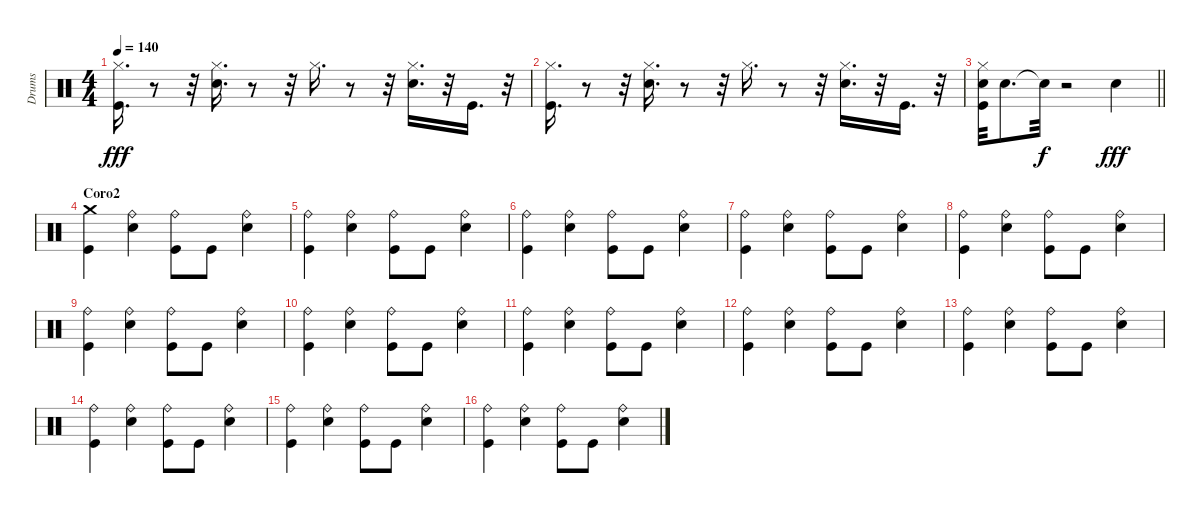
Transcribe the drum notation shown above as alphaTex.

\track ("Drums" "Drums") {instrument percussion}
\staff {score}
\articulation defaults
\ts (4 4)
\tempo 140
\clef neutral
\ks c
("Hi-Hat (closed)" "Kick (hit)").16{d dy fff} r.8 r.32 ("Hi-Hat (closed)" "Electric Snare (hit)").16{d} r.8 r.32 "Hi-Hat (closed)".16{d} r.8 r.32 ("Hi-Hat (closed)" "Electric Snare (hit)").16{d} r.32 "Kick (hit)".16{d} r.32 |
("Hi-Hat (closed)" "Kick (hit)").16{d} r.8 r.32 ("Hi-Hat (closed)" "Electric Snare (hit)").16{d} r.8 r.32 "Hi-Hat (closed)".16{d} r.8 r.32 ("Hi-Hat (closed)" "Electric Snare (hit)").16{d} r.32 "Kick (hit)".16{d} r.32 |
\barLineRight lightlight
("Hi-Hat (closed)" "Electric Snare (hit)" "Kick (hit)").32 "Electric Snare (hit)".8{d} "Snare (hit)"{t}.32{dy f} r.2 "Electric Snare (hit)".4{dy fff} |
\section ("" "Coro2")
("Crash medium (hit)" "Kick (hit)").4 ("Ride (bell)" "Electric Snare (hit)").4 ("Ride (bell)" "Kick (hit)").8 "Kick (hit)".8 ("Ride (bell)" "Electric Snare (hit)").4 |
("Ride (bell)" "Kick (hit)").4 ("Ride (bell)" "Electric Snare (hit)").4 ("Ride (bell)" "Kick (hit)").8 "Kick (hit)".8 ("Ride (bell)" "Electric Snare (hit)").4 |
("Ride (bell)" "Kick (hit)").4 ("Ride (bell)" "Electric Snare (hit)").4 ("Ride (bell)" "Kick (hit)").8 "Kick (hit)".8 ("Ride (bell)" "Electric Snare (hit)").4 |
("Ride (bell)" "Kick (hit)").4 ("Ride (bell)" "Electric Snare (hit)").4 ("Ride (bell)" "Kick (hit)").8 "Kick (hit)".8 ("Ride (bell)" "Electric Snare (hit)").4 |
("Ride (bell)" "Kick (hit)").4 ("Ride (bell)" "Electric Snare (hit)").4 ("Ride (bell)" "Kick (hit)").8 "Kick (hit)".8 ("Ride (bell)" "Electric Snare (hit)").4 |
("Ride (bell)" "Kick (hit)").4 ("Ride (bell)" "Electric Snare (hit)").4 ("Ride (bell)" "Kick (hit)").8 "Kick (hit)".8 ("Ride (bell)" "Electric Snare (hit)").4 |
("Ride (bell)" "Kick (hit)").4 ("Ride (bell)" "Electric Snare (hit)").4 ("Ride (bell)" "Kick (hit)").8 "Kick (hit)".8 ("Ride (bell)" "Electric Snare (hit)").4 |
("Ride (bell)" "Kick (hit)").4 ("Ride (bell)" "Electric Snare (hit)").4 ("Ride (bell)" "Kick (hit)").8 "Kick (hit)".8 ("Ride (bell)" "Electric Snare (hit)").4 |
("Ride (bell)" "Kick (hit)").4 ("Ride (bell)" "Electric Snare (hit)").4 ("Ride (bell)" "Kick (hit)").8 "Kick (hit)".8 ("Ride (bell)" "Electric Snare (hit)").4 |
("Ride (bell)" "Kick (hit)").4 ("Ride (bell)" "Electric Snare (hit)").4 ("Ride (bell)" "Kick (hit)").8 "Kick (hit)".8 ("Ride (bell)" "Electric Snare (hit)").4 |
("Ride (bell)" "Kick (hit)").4 ("Ride (bell)" "Electric Snare (hit)").4 ("Ride (bell)" "Kick (hit)").8 "Kick (hit)".8 ("Ride (bell)" "Electric Snare (hit)").4 |
("Ride (bell)" "Kick (hit)").4 ("Ride (bell)" "Electric Snare (hit)").4 ("Ride (bell)" "Kick (hit)").8 "Kick (hit)".8 ("Ride (bell)" "Electric Snare (hit)").4 |
("Ride (bell)" "Kick (hit)").4 ("Ride (bell)" "Electric Snare (hit)").4 ("Ride (bell)" "Kick (hit)").8 "Kick (hit)".8 ("Ride (bell)" "Electric Snare (hit)").4
